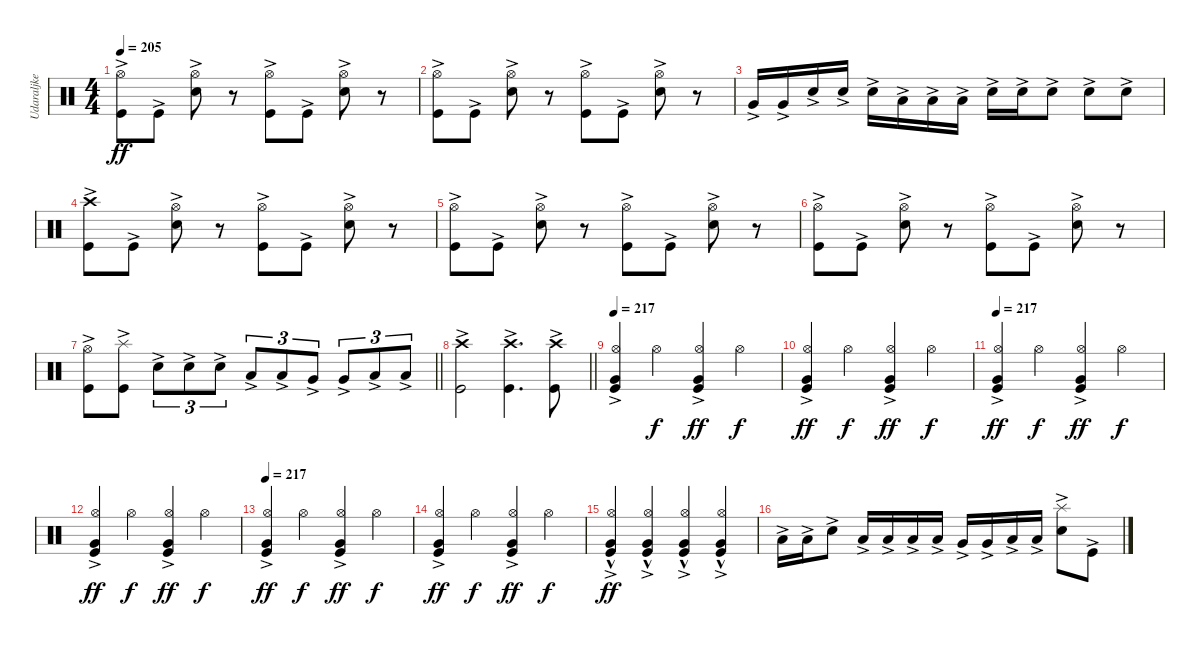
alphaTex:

\track ("Udaraljke" "Udaraljke") {instrument percussion}
\staff {score}
\articulation defaults
\ts (4 4)
\tempo 205
\clef neutral
\ks c
("Kick (hit)"{ac} "Hi-Hat (open)").8{dy ff} "Kick (hit)"{ac}.8 ("Hi-Hat (open)" "Snare (hit) 2"{ac}).8 r.8 ("Hi-Hat (open)" "Kick (hit)"{ac}).8 "Kick (hit)"{ac}.8 ("Hi-Hat (open)" "Snare (hit) 2"{ac}).8 r.8 |
("Kick (hit)"{ac} "Hi-Hat (open)").8 "Kick (hit)"{ac}.8 ("Hi-Hat (open)" "Snare (hit) 2"{ac}).8 r.8 ("Hi-Hat (open)" "Kick (hit)"{ac}).8 "Kick (hit)"{ac}.8 ("Hi-Hat (open)" "Snare (hit) 2"{ac}).8 r.8 |
"Very Low Tom (hit)"{ac}.16 "Very Low Tom (hit)"{ac}.16 "Snare (hit) 2"{ac}.16 "Snare (hit) 2"{ac}.16 "Snare (hit) 2"{ac}.16 "Low Tom (hit)"{ac}.16 "Low Tom (hit)"{ac}.16 "Low Tom (hit)"{ac}.16 "Snare (hit) 2"{ac}.16 "Snare (hit) 2"{ac}.16 "Snare (hit) 2"{ac}.8 "Snare (hit) 2"{ac}.8 "Snare (hit) 2"{ac}.8 |
("Kick (hit)"{ac} "Crash high (hit)").8 "Kick (hit)"{ac}.8 ("Hi-Hat (open)" "Snare (hit) 2"{ac}).8 r.8 ("Hi-Hat (open)" "Kick (hit)"{ac}).8 "Kick (hit)"{ac}.8 ("Hi-Hat (open)" "Snare (hit) 2"{ac}).8 r.8 |
("Kick (hit)"{ac} "Hi-Hat (open)").8 "Kick (hit)"{ac}.8 ("Hi-Hat (open)" "Snare (hit) 2"{ac}).8 r.8 ("Hi-Hat (open)" "Kick (hit)"{ac}).8 "Kick (hit)"{ac}.8 ("Hi-Hat (open)" "Snare (hit) 2"{ac}).8 r.8 |
("Kick (hit)"{ac} "Hi-Hat (open)").8 "Kick (hit)"{ac}.8 ("Hi-Hat (open)" "Snare (hit) 2"{ac}).8 r.8 ("Hi-Hat (open)" "Kick (hit)"{ac}).8 "Kick (hit)"{ac}.8 ("Hi-Hat (open)" "Snare (hit) 2"{ac}).8 r.8 |
\barLineRight lightlight
("Kick (hit)"{ac} "Hi-Hat (open)").8 ("Kick (hit)"{ac} "Splash (hit)").8 "Snare (hit) 2"{ac}.8{tu (3 2)} "Snare (hit) 2"{ac}.8{tu (3 2)} "Snare (hit) 2"{ac}.8{tu (3 2)} "Low Tom (hit)"{ac}.8{tu (3 2)} "Low Tom (hit)"{ac}.8{tu (3 2)} "Very Low Tom (hit)"{ac}.8{tu (3 2)} "Very Low Tom (hit)"{ac}.8{tu (3 2)} "Low Floor Tom (hit)"{ac}.8{tu (3 2)} "Low Floor Tom (hit)"{ac}.8{tu (3 2)} |
\section ("" "")
\barLineRight lightlight
("Crash high (hit)" "Kick (hit)"{ac}).2 ("Crash high (hit)" "Kick (hit)"{ac}).4{d} ("Kick (hit)"{ac} "Crash high (hit)").8 |
\section ("" "")
\tempo 217
("Kick (hit)"{ac} "Very Low Tom (hit)"{ac} "Hi-Hat (open)").4 "Hi-Hat (open)".4{dy f} ("Kick (hit)"{ac} "Very Low Tom (hit)"{ac} "Hi-Hat (open)").4{dy ff} "Hi-Hat (open)".4{dy f} |
("Kick (hit)"{ac} "Very Low Tom (hit)"{ac} "Hi-Hat (open)").4{dy ff} "Hi-Hat (open)".4{dy f} ("Kick (hit)"{ac} "Very Low Tom (hit)"{ac} "Hi-Hat (open)").4{dy ff} "Hi-Hat (open)".4{dy f} |
\tempo 217
("Kick (hit)"{ac} "Very Low Tom (hit)"{ac} "Hi-Hat (open)").4{dy ff} "Hi-Hat (open)".4{dy f} ("Kick (hit)"{ac} "Very Low Tom (hit)"{ac} "Hi-Hat (open)").4{dy ff} "Hi-Hat (open)".4{dy f} |
("Kick (hit)"{ac} "Very Low Tom (hit)"{ac} "Hi-Hat (open)").4{dy ff} "Hi-Hat (open)".4{dy f} ("Kick (hit)"{ac} "Very Low Tom (hit)"{ac} "Hi-Hat (open)").4{dy ff} "Hi-Hat (open)".4{dy f} |
\tempo 217
("Kick (hit)"{ac} "Very Low Tom (hit)"{ac} "Hi-Hat (open)").4{dy ff} "Hi-Hat (open)".4{dy f} ("Kick (hit)"{ac} "Very Low Tom (hit)"{ac} "Hi-Hat (open)").4{dy ff} "Hi-Hat (open)".4{dy f} |
("Kick (hit)"{ac} "Very Low Tom (hit)"{ac} "Hi-Hat (open)").4{dy ff} "Hi-Hat (open)".4{dy f} ("Kick (hit)"{ac} "Very Low Tom (hit)"{ac} "Hi-Hat (open)").4{dy ff} "Hi-Hat (open)".4{dy f} |
("Kick (hit)"{hac} "Very Low Tom (hit)"{ac} "Hi-Hat (open)").4{dy ff} ("Hi-Hat (open)" "Kick (hit)"{hac} "Very Low Tom (hit)"{ac}).4 ("Kick (hit)"{hac} "Very Low Tom (hit)"{ac} "Hi-Hat (open)").4 ("Hi-Hat (open)" "Kick (hit)"{hac} "Very Low Tom (hit)"{ac}).4 |
"Low Tom (hit)"{ac}.16 "Low Tom (hit)"{ac}.16 "Snare (hit) 2"{ac}.8 "Low Tom (hit)"{ac}.16 "Low Tom (hit)"{ac}.16 "Low Tom (hit)"{ac}.16 "Low Tom (hit)"{ac}.16 "Very Low Tom (hit)"{ac}.16 "Very Low Tom (hit)"{ac}.16 "Low Floor Tom (hit)"{ac}.16 "Low Floor Tom (hit)"{ac}.16 ("Snare (hit) 2"{ac} "Splash (hit)").8 "Kick (hit)"{ac}.8
